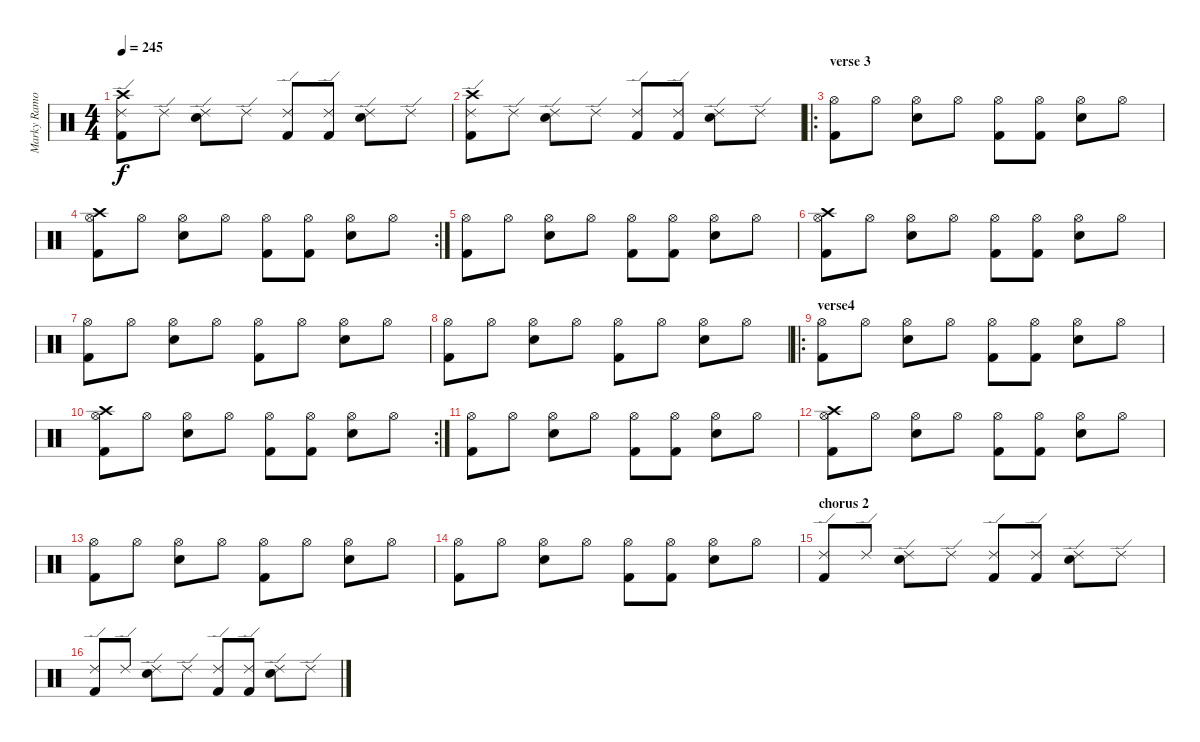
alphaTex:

\track ("Marky Ramone" "Marky Ramo") {instrument percussion}
\staff {score}
\articulation defaults
\ts (4 4)
\tempo 245
\clef neutral
\ks c
("Crash high (hit)" "Kick (hit) 2" "Ride (edge) 2").8{dy f} "Ride (edge) 2".8 ("Electric Snare (hit)" "Ride (edge) 2").8 "Ride (edge) 2".8 ("Kick (hit) 2" "Ride (edge) 2").8 ("Kick (hit) 2" "Ride (edge) 2").8 ("Electric Snare (hit)" "Ride (edge) 2").8 "Ride (edge) 2".8 |
("Crash high (hit)" "Kick (hit) 2" "Ride (edge) 2").8 "Ride (edge) 2".8 ("Electric Snare (hit)" "Ride (edge) 2").8 "Ride (edge) 2".8 ("Kick (hit) 2" "Ride (edge) 2").8 ("Kick (hit) 2" "Ride (edge) 2").8 ("Electric Snare (hit)" "Ride (edge) 2").8 "Ride (edge) 2".8 |
\ro
\section ("" "verse 3")
("Kick (hit) 2" "Hi-Hat (open)").8 "Hi-Hat (open)".8 ("Electric Snare (hit)" "Hi-Hat (open)").8 "Hi-Hat (open)".8 ("Kick (hit) 2" "Hi-Hat (open)").8 ("Kick (hit) 2" "Hi-Hat (open)").8 ("Electric Snare (hit)" "Hi-Hat (open)").8 "Hi-Hat (open)".8 |
\rc 2
("Crash high (hit)" "Kick (hit) 2" "Hi-Hat (open)").8 "Hi-Hat (open)".8 ("Electric Snare (hit)" "Hi-Hat (open)").8 "Hi-Hat (open)".8 ("Kick (hit) 2" "Hi-Hat (open)").8 ("Kick (hit) 2" "Hi-Hat (open)").8 ("Electric Snare (hit)" "Hi-Hat (open)").8 "Hi-Hat (open)".8 |
("Kick (hit) 2" "Hi-Hat (open)").8 "Hi-Hat (open)".8 ("Electric Snare (hit)" "Hi-Hat (open)").8 "Hi-Hat (open)".8 ("Kick (hit) 2" "Hi-Hat (open)").8 ("Kick (hit) 2" "Hi-Hat (open)").8 ("Electric Snare (hit)" "Hi-Hat (open)").8 "Hi-Hat (open)".8 |
("Crash high (hit)" "Kick (hit) 2" "Hi-Hat (open)").8 "Hi-Hat (open)".8 ("Electric Snare (hit)" "Hi-Hat (open)").8 "Hi-Hat (open)".8 ("Kick (hit) 2" "Hi-Hat (open)").8 ("Kick (hit) 2" "Hi-Hat (open)").8 ("Electric Snare (hit)" "Hi-Hat (open)").8 "Hi-Hat (open)".8 |
("Kick (hit) 2" "Hi-Hat (open)").8 "Hi-Hat (open)".8 ("Electric Snare (hit)" "Hi-Hat (open)").8 "Hi-Hat (open)".8 ("Kick (hit) 2" "Hi-Hat (open)").8 "Hi-Hat (open)".8 ("Electric Snare (hit)" "Hi-Hat (open)").8 "Hi-Hat (open)".8 |
("Kick (hit) 2" "Hi-Hat (open)").8 "Hi-Hat (open)".8 ("Electric Snare (hit)" "Hi-Hat (open)").8 "Hi-Hat (open)".8 ("Kick (hit) 2" "Hi-Hat (open)").8 "Hi-Hat (open)".8 ("Electric Snare (hit)" "Hi-Hat (open)").8 "Hi-Hat (open)".8 |
\ro
\section ("" "verse4")
("Kick (hit) 2" "Hi-Hat (open)").8 "Hi-Hat (open)".8 ("Electric Snare (hit)" "Hi-Hat (open)").8 "Hi-Hat (open)".8 ("Kick (hit) 2" "Hi-Hat (open)").8 ("Kick (hit) 2" "Hi-Hat (open)").8 ("Electric Snare (hit)" "Hi-Hat (open)").8 "Hi-Hat (open)".8 |
\rc 2
("Crash high (hit)" "Kick (hit) 2" "Hi-Hat (open)").8 "Hi-Hat (open)".8 ("Electric Snare (hit)" "Hi-Hat (open)").8 "Hi-Hat (open)".8 ("Kick (hit) 2" "Hi-Hat (open)").8 ("Kick (hit) 2" "Hi-Hat (open)").8 ("Electric Snare (hit)" "Hi-Hat (open)").8 "Hi-Hat (open)".8 |
("Kick (hit) 2" "Hi-Hat (open)").8 "Hi-Hat (open)".8 ("Electric Snare (hit)" "Hi-Hat (open)").8 "Hi-Hat (open)".8 ("Kick (hit) 2" "Hi-Hat (open)").8 ("Kick (hit) 2" "Hi-Hat (open)").8 ("Electric Snare (hit)" "Hi-Hat (open)").8 "Hi-Hat (open)".8 |
("Crash high (hit)" "Kick (hit) 2" "Hi-Hat (open)").8 "Hi-Hat (open)".8 ("Electric Snare (hit)" "Hi-Hat (open)").8 "Hi-Hat (open)".8 ("Kick (hit) 2" "Hi-Hat (open)").8 ("Kick (hit) 2" "Hi-Hat (open)").8 ("Electric Snare (hit)" "Hi-Hat (open)").8 "Hi-Hat (open)".8 |
("Kick (hit) 2" "Hi-Hat (open)").8 "Hi-Hat (open)".8 ("Electric Snare (hit)" "Hi-Hat (open)").8 "Hi-Hat (open)".8 ("Kick (hit) 2" "Hi-Hat (open)").8 "Hi-Hat (open)".8 ("Electric Snare (hit)" "Hi-Hat (open)").8 "Hi-Hat (open)".8 |
("Kick (hit) 2" "Hi-Hat (open)").8 "Hi-Hat (open)".8 ("Electric Snare (hit)" "Hi-Hat (open)").8 "Hi-Hat (open)".8 ("Kick (hit) 2" "Hi-Hat (open)").8 ("Kick (hit) 2" "Hi-Hat (open)").8 ("Electric Snare (hit)" "Hi-Hat (open)").8 "Hi-Hat (open)".8 |
\section ("" "chorus 2")
("Kick (hit) 2" "Ride (edge) 2").8 "Ride (edge) 2".8 ("Electric Snare (hit)" "Ride (edge) 2").8 "Ride (edge) 2".8 ("Kick (hit) 2" "Ride (edge) 2").8 ("Kick (hit) 2" "Ride (edge) 2").8 ("Electric Snare (hit)" "Ride (edge) 2").8 "Ride (edge) 2".8 |
("Kick (hit) 2" "Ride (edge) 2").8 "Ride (edge) 2".8 ("Electric Snare (hit)" "Ride (edge) 2").8 "Ride (edge) 2".8 ("Kick (hit) 2" "Ride (edge) 2").8 ("Kick (hit) 2" "Ride (edge) 2").8 ("Electric Snare (hit)" "Ride (edge) 2").8 "Ride (edge) 2".8
